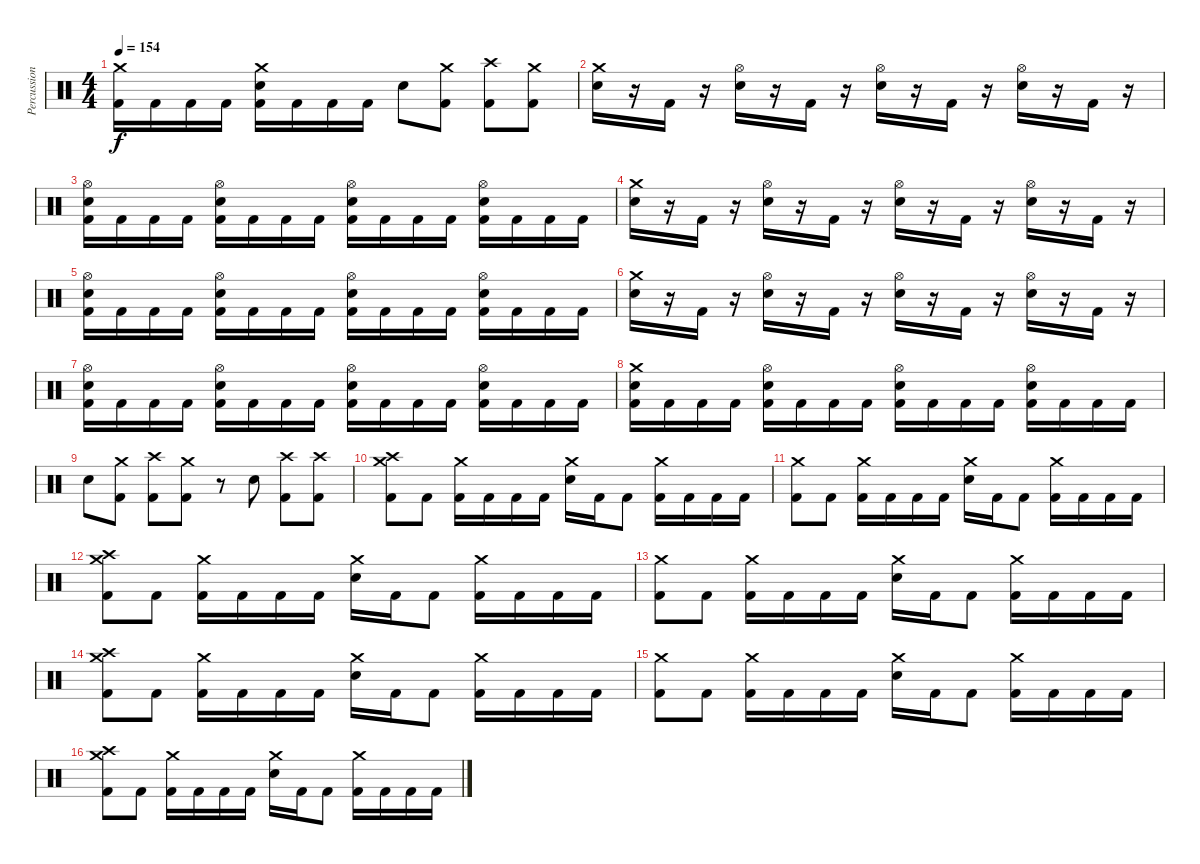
\track ("Percussion" "Percussion") {instrument percussion bank 128}
\staff {score}
\articulation defaults
\ts (4 4)
\tempo 154
\clef neutral
\ks c
("Crash medium (hit)" "Kick (hit) 2").16{dy f} "Kick (hit) 2".16 "Kick (hit) 2".16 "Kick (hit) 2".16 ("Crash medium (hit)" "Snare (hit) 2" "Kick (hit) 2").16 "Kick (hit) 2".16 "Kick (hit) 2".16 "Kick (hit) 2".16 "Snare (hit) 2".8 ("Crash medium (hit)" "Kick (hit) 2").8 ("Crash high (hit)" "Kick (hit) 2").8 ("Crash medium (hit)" "Kick (hit) 2").8 |
("Crash medium (hit)" "Snare (hit) 2").16 r.16 "Kick (hit) 2".16 r.16 ("Hi-Hat (open)" "Snare (hit) 2").16 r.16 "Kick (hit) 2".16 r.16 ("Hi-Hat (open)" "Snare (hit) 2").16 r.16 "Kick (hit) 2".16 r.16 ("Hi-Hat (open)" "Snare (hit) 2").16 r.16 "Kick (hit) 2".16 r.16 |
("Hi-Hat (open)" "Snare (hit) 2" "Kick (hit) 2").16 "Kick (hit) 2".16 "Kick (hit) 2".16 "Kick (hit) 2".16 ("Hi-Hat (open)" "Snare (hit) 2" "Kick (hit) 2").16 "Kick (hit) 2".16 "Kick (hit) 2".16 "Kick (hit) 2".16 ("Hi-Hat (open)" "Snare (hit) 2" "Kick (hit) 2").16 "Kick (hit) 2".16 "Kick (hit) 2".16 "Kick (hit) 2".16 ("Hi-Hat (open)" "Snare (hit) 2" "Kick (hit) 2").16 "Kick (hit) 2".16 "Kick (hit) 2".16 "Kick (hit) 2".16 |
("Crash medium (hit)" "Snare (hit) 2").16 r.16 "Kick (hit) 2".16 r.16 ("Hi-Hat (open)" "Snare (hit) 2").16 r.16 "Kick (hit) 2".16 r.16 ("Hi-Hat (open)" "Snare (hit) 2").16 r.16 "Kick (hit) 2".16 r.16 ("Hi-Hat (open)" "Snare (hit) 2").16 r.16 "Kick (hit) 2".16 r.16 |
("Hi-Hat (open)" "Snare (hit) 2" "Kick (hit) 2").16 "Kick (hit) 2".16 "Kick (hit) 2".16 "Kick (hit) 2".16 ("Hi-Hat (open)" "Snare (hit) 2" "Kick (hit) 2").16 "Kick (hit) 2".16 "Kick (hit) 2".16 "Kick (hit) 2".16 ("Hi-Hat (open)" "Snare (hit) 2" "Kick (hit) 2").16 "Kick (hit) 2".16 "Kick (hit) 2".16 "Kick (hit) 2".16 ("Hi-Hat (open)" "Snare (hit) 2" "Kick (hit) 2").16 "Kick (hit) 2".16 "Kick (hit) 2".16 "Kick (hit) 2".16 |
("Crash medium (hit)" "Snare (hit) 2").16 r.16 "Kick (hit) 2".16 r.16 ("Hi-Hat (open)" "Snare (hit) 2").16 r.16 "Kick (hit) 2".16 r.16 ("Hi-Hat (open)" "Snare (hit) 2").16 r.16 "Kick (hit) 2".16 r.16 ("Hi-Hat (open)" "Snare (hit) 2").16 r.16 "Kick (hit) 2".16 r.16 |
("Hi-Hat (open)" "Snare (hit) 2" "Kick (hit) 2").16 "Kick (hit) 2".16 "Kick (hit) 2".16 "Kick (hit) 2".16 ("Hi-Hat (open)" "Snare (hit) 2" "Kick (hit) 2").16 "Kick (hit) 2".16 "Kick (hit) 2".16 "Kick (hit) 2".16 ("Hi-Hat (open)" "Snare (hit) 2" "Kick (hit) 2").16 "Kick (hit) 2".16 "Kick (hit) 2".16 "Kick (hit) 2".16 ("Hi-Hat (open)" "Snare (hit) 2" "Kick (hit) 2").16 "Kick (hit) 2".16 "Kick (hit) 2".16 "Kick (hit) 2".16 |
("Crash medium (hit)" "Snare (hit) 2" "Kick (hit) 2").16 "Kick (hit) 2".16 "Kick (hit) 2".16 "Kick (hit) 2".16 ("Hi-Hat (open)" "Snare (hit) 2" "Kick (hit) 2").16 "Kick (hit) 2".16 "Kick (hit) 2".16 "Kick (hit) 2".16 ("Hi-Hat (open)" "Snare (hit) 2" "Kick (hit) 2").16 "Kick (hit) 2".16 "Kick (hit) 2".16 "Kick (hit) 2".16 ("Hi-Hat (open)" "Snare (hit) 2" "Kick (hit) 2").16 "Kick (hit) 2".16 "Kick (hit) 2".16 "Kick (hit) 2".16 |
"Snare (hit) 2".8 ("Crash medium (hit)" "Kick (hit) 2").8 ("Crash high (hit)" "Kick (hit) 2").8 ("Crash medium (hit)" "Kick (hit) 2").8 r.8 "Snare (hit) 2".8 ("Crash high (hit)" "Kick (hit) 2").8 ("Crash high (hit)" "Kick (hit) 2").8 |
("Crash high (hit)" "Crash medium (hit)" "Kick (hit) 2").8 "Kick (hit) 2".8 ("Crash medium (hit)" "Kick (hit) 2").16 "Kick (hit) 2".16 "Kick (hit) 2".16 "Kick (hit) 2".16 ("Crash medium (hit)" "Snare (hit) 2").16 "Kick (hit) 2".16 "Kick (hit) 2".8 ("Crash medium (hit)" "Kick (hit) 2").16 "Kick (hit) 2".16 "Kick (hit) 2".16 "Kick (hit) 2".16 |
("Crash medium (hit)" "Kick (hit) 2").8 "Kick (hit) 2".8 ("Crash medium (hit)" "Kick (hit) 2").16 "Kick (hit) 2".16 "Kick (hit) 2".16 "Kick (hit) 2".16 ("Crash medium (hit)" "Snare (hit) 2").16 "Kick (hit) 2".16 "Kick (hit) 2".8 ("Crash medium (hit)" "Kick (hit) 2").16 "Kick (hit) 2".16 "Kick (hit) 2".16 "Kick (hit) 2".16 |
("Crash high (hit)" "Crash medium (hit)" "Kick (hit) 2").8 "Kick (hit) 2".8 ("Crash medium (hit)" "Kick (hit) 2").16 "Kick (hit) 2".16 "Kick (hit) 2".16 "Kick (hit) 2".16 ("Crash medium (hit)" "Snare (hit) 2").16 "Kick (hit) 2".16 "Kick (hit) 2".8 ("Crash medium (hit)" "Kick (hit) 2").16 "Kick (hit) 2".16 "Kick (hit) 2".16 "Kick (hit) 2".16 |
("Crash medium (hit)" "Kick (hit) 2").8 "Kick (hit) 2".8 ("Crash medium (hit)" "Kick (hit) 2").16 "Kick (hit) 2".16 "Kick (hit) 2".16 "Kick (hit) 2".16 ("Crash medium (hit)" "Snare (hit) 2").16 "Kick (hit) 2".16 "Kick (hit) 2".8 ("Crash medium (hit)" "Kick (hit) 2").16 "Kick (hit) 2".16 "Kick (hit) 2".16 "Kick (hit) 2".16 |
("Crash high (hit)" "Crash medium (hit)" "Kick (hit) 2").8 "Kick (hit) 2".8 ("Crash medium (hit)" "Kick (hit) 2").16 "Kick (hit) 2".16 "Kick (hit) 2".16 "Kick (hit) 2".16 ("Crash medium (hit)" "Snare (hit) 2").16 "Kick (hit) 2".16 "Kick (hit) 2".8 ("Crash medium (hit)" "Kick (hit) 2").16 "Kick (hit) 2".16 "Kick (hit) 2".16 "Kick (hit) 2".16 |
("Crash medium (hit)" "Kick (hit) 2").8 "Kick (hit) 2".8 ("Crash medium (hit)" "Kick (hit) 2").16 "Kick (hit) 2".16 "Kick (hit) 2".16 "Kick (hit) 2".16 ("Crash medium (hit)" "Snare (hit) 2").16 "Kick (hit) 2".16 "Kick (hit) 2".8 ("Crash medium (hit)" "Kick (hit) 2").16 "Kick (hit) 2".16 "Kick (hit) 2".16 "Kick (hit) 2".16 |
("Crash high (hit)" "Crash medium (hit)" "Kick (hit) 2").8 "Kick (hit) 2".8 ("Crash medium (hit)" "Kick (hit) 2").16 "Kick (hit) 2".16 "Kick (hit) 2".16 "Kick (hit) 2".16 ("Crash medium (hit)" "Snare (hit) 2").16 "Kick (hit) 2".16 "Kick (hit) 2".8 ("Crash medium (hit)" "Kick (hit) 2").16 "Kick (hit) 2".16 "Kick (hit) 2".16 "Kick (hit) 2".16
